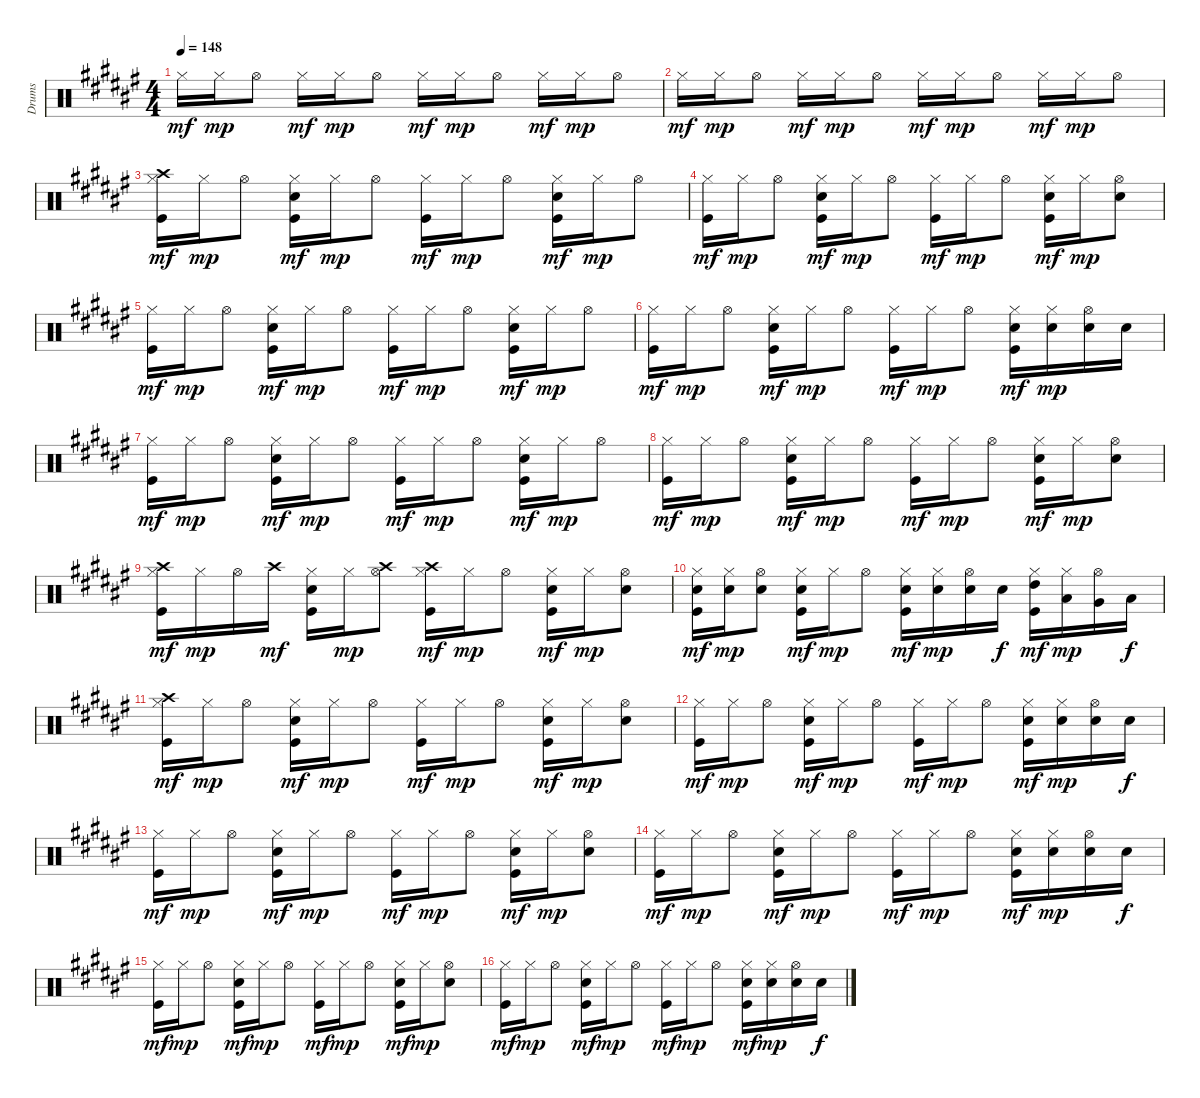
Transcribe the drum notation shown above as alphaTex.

\track ("Drums" "Drums") {instrument percussion}
\staff {score}
\articulation defaults
\ts (4 4)
\tempo 148
\clef neutral
\ks d#minor "Hi-Hat (closed)".16{dy mf} "Hi-Hat (closed)".16{dy mp} "Hi-Hat (open)".8 "Hi-Hat (closed)".16{dy mf} "Hi-Hat (closed)".16{dy mp} "Hi-Hat (open)".8 "Hi-Hat (closed)".16{dy mf} "Hi-Hat (closed)".16{dy mp} "Hi-Hat (open)".8 "Hi-Hat (closed)".16{dy mf} "Hi-Hat (closed)".16{dy mp} "Hi-Hat (open)".8
|
"Hi-Hat (closed)".16{dy mf} "Hi-Hat (closed)".16{dy mp} "Hi-Hat (open)".8 "Hi-Hat (closed)".16{dy mf} "Hi-Hat (closed)".16{dy mp} "Hi-Hat (open)".8 "Hi-Hat (closed)".16{dy mf} "Hi-Hat (closed)".16{dy mp} "Hi-Hat (open)".8 "Hi-Hat (closed)".16{dy mf} "Hi-Hat (closed)".16{dy mp} "Hi-Hat (open)".8 |
("Kick (hit)" "Crash high (hit)" "Hi-Hat (closed)").16{dy mf} "Hi-Hat (closed)".16{dy mp} "Hi-Hat (open)".8 ("Electric Snare (hit)" "Kick (hit)" "Hi-Hat (closed)").16{dy mf} "Hi-Hat (closed)".16{dy mp} "Hi-Hat (open)".8 ("Kick (hit)" "Hi-Hat (closed)").16{dy mf} "Hi-Hat (closed)".16{dy mp} "Hi-Hat (open)".8 ("Electric Snare (hit)" "Kick (hit)" "Hi-Hat (closed)").16{dy mf} "Hi-Hat (closed)".16{dy mp} "Hi-Hat (open)".8 |
("Kick (hit)" "Hi-Hat (closed)").16{dy mf} "Hi-Hat (closed)".16{dy mp} "Hi-Hat (open)".8 ("Electric Snare (hit)" "Kick (hit)" "Hi-Hat (closed)").16{dy mf} "Hi-Hat (closed)".16{dy mp} "Hi-Hat (open)".8 ("Kick (hit)" "Hi-Hat (closed)").16{dy mf} "Hi-Hat (closed)".16{dy mp} "Hi-Hat (open)".8 ("Electric Snare (hit)" "Kick (hit)" "Hi-Hat (closed)").16{dy mf} "Hi-Hat (closed)".16{dy mp} ("Snare (hit) 2" "Hi-Hat (open)").8 |
("Kick (hit)" "Hi-Hat (closed)").16{dy mf} "Hi-Hat (closed)".16{dy mp} "Hi-Hat (open)".8 ("Electric Snare (hit)" "Kick (hit)" "Hi-Hat (closed)").16{dy mf} "Hi-Hat (closed)".16{dy mp} "Hi-Hat (open)".8 ("Kick (hit)" "Hi-Hat (closed)").16{dy mf} "Hi-Hat (closed)".16{dy mp} "Hi-Hat (open)".8 ("Electric Snare (hit)" "Kick (hit)" "Hi-Hat (closed)").16{dy mf} "Hi-Hat (closed)".16{dy mp} "Hi-Hat (open)".8 |
("Kick (hit)" "Hi-Hat (closed)").16{dy mf} "Hi-Hat (closed)".16{dy mp} "Hi-Hat (open)".8 ("Electric Snare (hit)" "Kick (hit)" "Hi-Hat (closed)").16{dy mf} "Hi-Hat (closed)".16{dy mp} "Hi-Hat (open)".8 ("Kick (hit)" "Hi-Hat (closed)").16{dy mf} "Hi-Hat (closed)".16{dy mp} "Hi-Hat (open)".8 ("Snare (hit) 2" "Kick (hit)" "Hi-Hat (closed)").16{dy mf} ("Snare (hit) 2" "Hi-Hat (closed)").16{dy mp} ("Snare (hit) 2" "Hi-Hat (open)").16 "Snare (hit) 2".16 |
("Kick (hit)" "Hi-Hat (closed)").16{dy mf} "Hi-Hat (closed)".16{dy mp} "Hi-Hat (open)".8 ("Electric Snare (hit)" "Kick (hit)" "Hi-Hat (closed)").16{dy mf} "Hi-Hat (closed)".16{dy mp} "Hi-Hat (open)".8 ("Kick (hit)" "Hi-Hat (closed)").16{dy mf} "Hi-Hat (closed)".16{dy mp} "Hi-Hat (open)".8 ("Electric Snare (hit)" "Kick (hit)" "Hi-Hat (closed)").16{dy mf} "Hi-Hat (closed)".16{dy mp} "Hi-Hat (open)".8 |
("Kick (hit)" "Hi-Hat (closed)").16{dy mf} "Hi-Hat (closed)".16{dy mp} "Hi-Hat (open)".8 ("Electric Snare (hit)" "Kick (hit)" "Hi-Hat (closed)").16{dy mf} "Hi-Hat (closed)".16{dy mp} "Hi-Hat (open)".8 ("Kick (hit)" "Hi-Hat (closed)").16{dy mf} "Hi-Hat (closed)".16{dy mp} "Hi-Hat (open)".8 ("Electric Snare (hit)" "Kick (hit)" "Hi-Hat (closed)").16{dy mf} "Hi-Hat (closed)".16{dy mp} ("Snare (hit) 2" "Hi-Hat (open)").8 |
("Kick (hit)" "Crash high (hit)" "Hi-Hat (closed)").16{dy mf} "Hi-Hat (closed)".16{dy mp} "Hi-Hat (open)".16 "Crash high (hit)".16{dy mf} ("Electric Snare (hit)" "Kick (hit)" "Hi-Hat (closed)").16 "Hi-Hat (closed)".16{dy mp} ("Crash high (hit)" "Hi-Hat (open)").8 ("Kick (hit)" "Crash high (hit)" "Hi-Hat (closed)").16{dy mf} "Hi-Hat (closed)".16{dy mp} "Hi-Hat (open)".8 ("Electric Snare (hit)" "Kick (hit)" "Hi-Hat (closed)").16{dy mf} "Hi-Hat (closed)".16{dy mp} ("Snare (hit) 2" "Hi-Hat (open)").8 |
("Kick (hit)" "Snare (hit) 2" "Hi-Hat (closed)").16{dy mf} ("Snare (hit) 2" "Hi-Hat (closed)").16{dy mp} ("Electric Snare (hit)" "Hi-Hat (open)").8 ("Kick (hit)" "Electric Snare (hit)" "Hi-Hat (closed)").16{dy mf} "Hi-Hat (closed)".16{dy mp} "Hi-Hat (open)".8 ("Kick (hit)" "Snare (hit) 2" "Hi-Hat (closed)").16{dy mf} ("Snare (hit) 2" "Hi-Hat (closed)").16{dy mp} ("Electric Snare (hit)" "Hi-Hat (open)").16 "Electric Snare (hit)".16{dy f} ("Kick (hit)" "Hi-Hat (closed)" "High Tom (hit)").16{dy mf} ("Low Tom (hit)" "Hi-Hat (closed)").16{dy mp} ("Very Low Tom (hit)" "Hi-Hat (open)").16 "Low Floor Tom (hit)".16{dy f} |
("Crash high (hit)" "Kick (hit)" "Hi-Hat (closed)").16{dy mf} "Hi-Hat (closed)".16{dy mp} "Hi-Hat (open)".8 ("Electric Snare (hit)" "Kick (hit)" "Hi-Hat (closed)").16{dy mf} "Hi-Hat (closed)".16{dy mp} "Hi-Hat (open)".8 ("Kick (hit)" "Hi-Hat (closed)").16{dy mf} "Hi-Hat (closed)".16{dy mp} "Hi-Hat (open)".8 ("Electric Snare (hit)" "Kick (hit)" "Hi-Hat (closed)").16{dy mf} "Hi-Hat (closed)".16{dy mp} ("Snare (hit) 2" "Hi-Hat (open)").8 |
("Kick (hit)" "Hi-Hat (closed)").16{dy mf} "Hi-Hat (closed)".16{dy mp} "Hi-Hat (open)".8 ("Electric Snare (hit)" "Kick (hit)" "Hi-Hat (closed)").16{dy mf} "Hi-Hat (closed)".16{dy mp} "Hi-Hat (open)".8 ("Kick (hit)" "Hi-Hat (closed)").16{dy mf} "Hi-Hat (closed)".16{dy mp} "Hi-Hat (open)".8 ("Snare (hit) 2" "Kick (hit)" "Hi-Hat (closed)").16{dy mf} ("Snare (hit) 2" "Hi-Hat (closed)").16{dy mp} ("Snare (hit) 2" "Hi-Hat (open)").16 "Snare (hit) 2".16{dy f} |
("Kick (hit)" "Hi-Hat (closed)").16{dy mf} "Hi-Hat (closed)".16{dy mp} "Hi-Hat (open)".8 ("Electric Snare (hit)" "Kick (hit)" "Hi-Hat (closed)").16{dy mf} "Hi-Hat (closed)".16{dy mp} "Hi-Hat (open)".8 ("Kick (hit)" "Hi-Hat (closed)").16{dy mf} "Hi-Hat (closed)".16{dy mp} "Hi-Hat (open)".8 ("Electric Snare (hit)" "Kick (hit)" "Hi-Hat (closed)").16{dy mf} "Hi-Hat (closed)".16{dy mp} ("Snare (hit) 2" "Hi-Hat (open)").8 |
("Kick (hit)" "Hi-Hat (closed)").16{dy mf} "Hi-Hat (closed)".16{dy mp} "Hi-Hat (open)".8 ("Electric Snare (hit)" "Kick (hit)" "Hi-Hat (closed)").16{dy mf} "Hi-Hat (closed)".16{dy mp} "Hi-Hat (open)".8 ("Kick (hit)" "Hi-Hat (closed)").16{dy mf} "Hi-Hat (closed)".16{dy mp} "Hi-Hat (open)".8 ("Snare (hit) 2" "Kick (hit)" "Hi-Hat (closed)").16{dy mf} ("Snare (hit) 2" "Hi-Hat (closed)").16{dy mp} ("Snare (hit) 2" "Hi-Hat (open)").16 "Snare (hit) 2".16{dy f} |
("Kick (hit)" "Hi-Hat (closed)").16{dy mf} "Hi-Hat (closed)".16{dy mp} "Hi-Hat (open)".8 ("Electric Snare (hit)" "Kick (hit)" "Hi-Hat (closed)").16{dy mf} "Hi-Hat (closed)".16{dy mp} "Hi-Hat (open)".8 ("Kick (hit)" "Hi-Hat (closed)").16{dy mf} "Hi-Hat (closed)".16{dy mp} "Hi-Hat (open)".8 ("Electric Snare (hit)" "Kick (hit)" "Hi-Hat (closed)").16{dy mf} "Hi-Hat (closed)".16{dy mp} ("Snare (hit) 2" "Hi-Hat (open)").8 |
("Kick (hit)" "Hi-Hat (closed)").16{dy mf} "Hi-Hat (closed)".16{dy mp} "Hi-Hat (open)".8 ("Electric Snare (hit)" "Kick (hit)" "Hi-Hat (closed)").16{dy mf} "Hi-Hat (closed)".16{dy mp} "Hi-Hat (open)".8 ("Kick (hit)" "Hi-Hat (closed)").16{dy mf} "Hi-Hat (closed)".16{dy mp} "Hi-Hat (open)".8 ("Snare (hit) 2" "Kick (hit)" "Hi-Hat (closed)").16{dy mf} ("Snare (hit) 2" "Hi-Hat (closed)").16{dy mp} ("Snare (hit) 2" "Hi-Hat (open)").16 "Snare (hit) 2".16{dy f}
